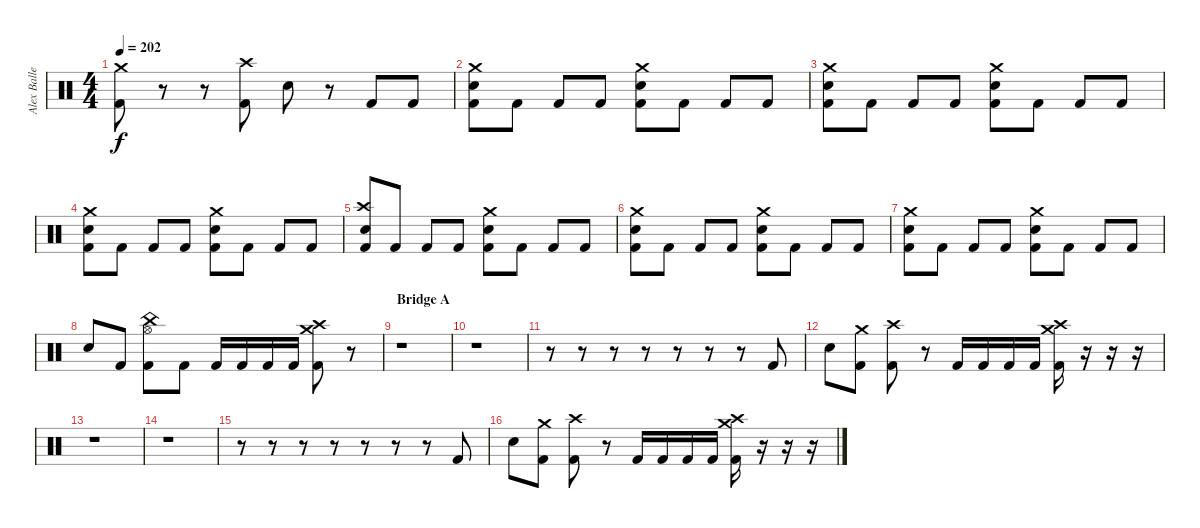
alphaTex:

\track ("Alex Ballew" "Alex Balle") {instrument percussion}
\staff {score}
\articulation defaults
\ts (4 4)
\tempo 202
\clef neutral
\ks c
("Crash medium (hit)" "Kick (hit) 2").8{dy f} r.8 r.8 ("Crash high (hit)" "Kick (hit) 2").8 "Electric Snare (hit)".8 r.8 "Kick (hit) 2".8 "Kick (hit) 2".8 |
("Crash medium (hit)" "Electric Snare (hit)" "Kick (hit) 2").8 "Kick (hit) 2".8 "Kick (hit) 2".8 "Kick (hit) 2".8 ("Crash medium (hit)" "Electric Snare (hit)" "Kick (hit) 2").8 "Kick (hit) 2".8 "Kick (hit) 2".8 "Kick (hit) 2".8 |
("Crash medium (hit)" "Electric Snare (hit)" "Kick (hit) 2").8 "Kick (hit) 2".8 "Kick (hit) 2".8 "Kick (hit) 2".8 ("Crash medium (hit)" "Electric Snare (hit)" "Kick (hit) 2").8 "Kick (hit) 2".8 "Kick (hit) 2".8 "Kick (hit) 2".8 |
("Crash medium (hit)" "Electric Snare (hit)" "Kick (hit) 2").8 "Kick (hit) 2".8 "Kick (hit) 2".8 "Kick (hit) 2".8 ("Crash medium (hit)" "Electric Snare (hit)" "Kick (hit) 2").8 "Kick (hit) 2".8 "Kick (hit) 2".8 "Kick (hit) 2".8 |
("Crash high (hit)" "Electric Snare (hit)" "Kick (hit) 2").8 "Kick (hit) 2".8 "Kick (hit) 2".8 "Kick (hit) 2".8 ("Crash medium (hit)" "Electric Snare (hit)" "Kick (hit) 2").8 "Kick (hit) 2".8 "Kick (hit) 2".8 "Kick (hit) 2".8 |
("Crash medium (hit)" "Electric Snare (hit)" "Kick (hit) 2").8 "Kick (hit) 2".8 "Kick (hit) 2".8 "Kick (hit) 2".8 ("Crash medium (hit)" "Electric Snare (hit)" "Kick (hit) 2").8 "Kick (hit) 2".8 "Kick (hit) 2".8 "Kick (hit) 2".8 |
("Crash medium (hit)" "Electric Snare (hit)" "Kick (hit) 2").8 "Kick (hit) 2".8 "Kick (hit) 2".8 "Kick (hit) 2".8 ("Crash medium (hit)" "Electric Snare (hit)" "Kick (hit) 2").8 "Kick (hit) 2".8 "Kick (hit) 2".8 "Kick (hit) 2".8 |
"Electric Snare (hit)".8 "Kick (hit) 2".8 ("China (hit)" "Hi-Hat (open)" "Kick (hit) 2").8 "Kick (hit) 2".8 "Kick (hit) 2".16 "Kick (hit) 2".16 "Kick (hit) 2".16 "Kick (hit) 2".16 ("Crash medium (hit)" "Crash high (hit)" "Kick (hit) 2").8 r.8 |
\section ("" "Bridge A")
r.1 |
r.1 |
r.8 r.8 r.8 r.8 r.8 r.8 r.8 "Kick (hit) 2".8 |
"Electric Snare (hit)".8 ("Crash medium (hit)" "Kick (hit) 2").8 ("Crash high (hit)" "Kick (hit) 2").8 r.8 "Kick (hit) 2".16 "Kick (hit) 2".16 "Kick (hit) 2".16 "Kick (hit) 2".16 ("Crash medium (hit)" "Crash high (hit)" "Kick (hit) 2").16 r.16 r.16 r.16 |
r.1 |
r.1 |
r.8 r.8 r.8 r.8 r.8 r.8 r.8 "Kick (hit) 2".8 |
"Electric Snare (hit)".8 ("Crash medium (hit)" "Kick (hit) 2").8 ("Crash high (hit)" "Kick (hit) 2").8 r.8 "Kick (hit) 2".16 "Kick (hit) 2".16 "Kick (hit) 2".16 "Kick (hit) 2".16 ("Crash medium (hit)" "Crash high (hit)" "Kick (hit) 2").16 r.16 r.16 r.16
